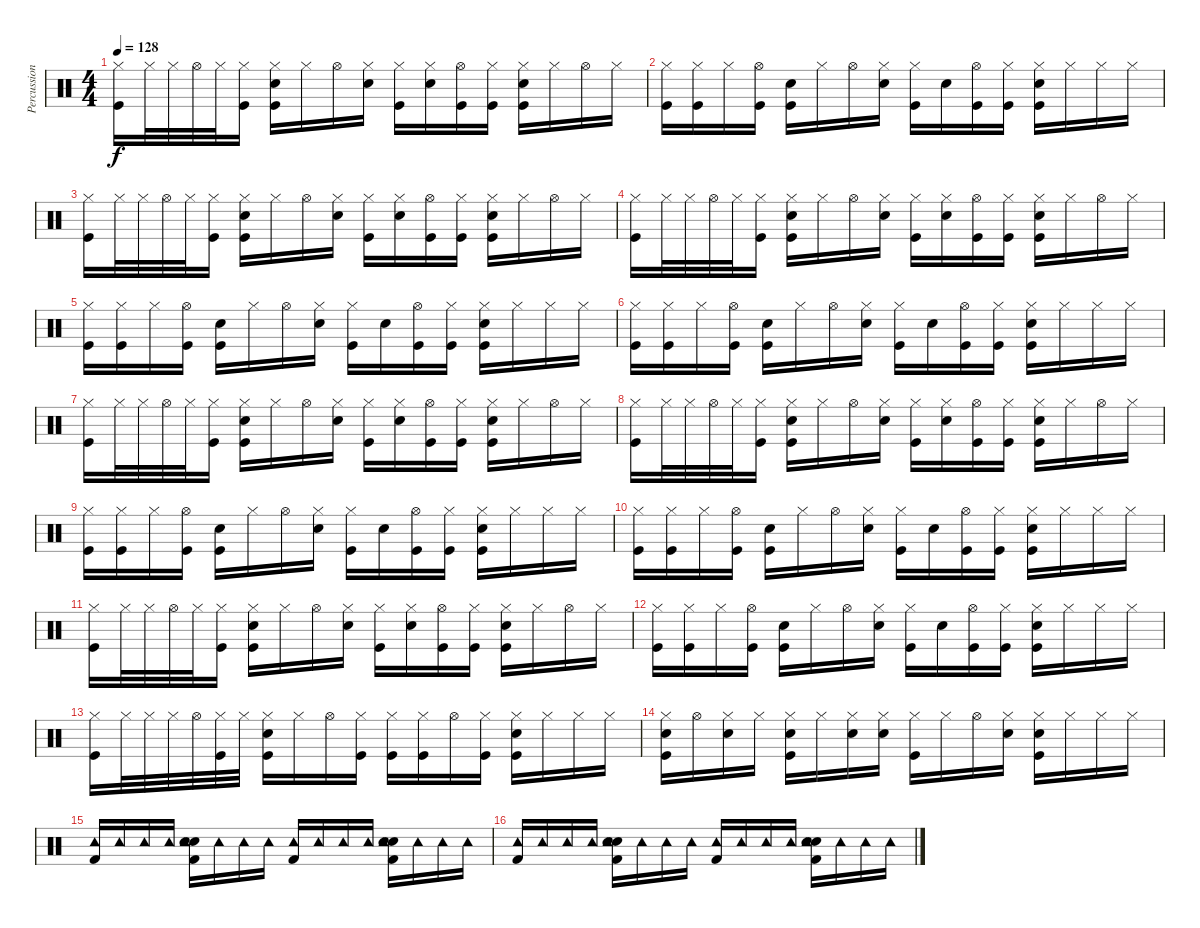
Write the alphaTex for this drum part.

\track ("Percussion" "Percussion") {instrument percussion}
\staff {score}
\articulation defaults
\ts (4 4)
\tempo 128
\clef neutral
\ks c
("Kick (hit)" "Hi-Hat (closed)").16{dy f} "Hi-Hat (closed)".32 "Hi-Hat (closed)".32 "Hi-Hat (open)".32 "Hi-Hat (closed)".32 ("Kick (hit)" "Hi-Hat (closed)").16 ("Kick (hit)" "Snare (hit) 2" "Hi-Hat (closed)").16 "Hi-Hat (closed)".16 "Hi-Hat (open)".16 ("Snare (hit) 2" "Hi-Hat (closed)").16 ("Kick (hit)" "Hi-Hat (closed)").16 ("Snare (hit) 2" "Hi-Hat (closed)").16 ("Kick (hit)" "Hi-Hat (open)").16 ("Kick (hit)" "Hi-Hat (closed)").16 ("Kick (hit)" "Snare (hit) 2" "Hi-Hat (closed)").16 "Hi-Hat (closed)".16 "Hi-Hat (open)".16 "Hi-Hat (closed)".16 |
("Kick (hit)" "Hi-Hat (closed)").16 ("Kick (hit)" "Hi-Hat (closed)").16 "Hi-Hat (closed)".16 ("Kick (hit)" "Hi-Hat (open)").16 ("Kick (hit)" "Snare (hit) 2").16 "Hi-Hat (closed)".16 "Hi-Hat (open)".16 ("Snare (hit) 2" "Hi-Hat (closed)").16 ("Kick (hit)" "Hi-Hat (closed)").16 "Snare (hit) 2".16 ("Kick (hit)" "Hi-Hat (open)").16 ("Kick (hit)" "Hi-Hat (closed)").16 ("Kick (hit)" "Snare (hit) 2" "Hi-Hat (closed)").16 "Hi-Hat (closed)".16 "Hi-Hat (closed)".16 "Hi-Hat (closed)".16 |
("Kick (hit)" "Hi-Hat (closed)").16 "Hi-Hat (closed)".32 "Hi-Hat (closed)".32 "Hi-Hat (open)".32 "Hi-Hat (closed)".32 ("Kick (hit)" "Hi-Hat (closed)").16 ("Kick (hit)" "Snare (hit) 2" "Hi-Hat (closed)").16 "Hi-Hat (closed)".16 "Hi-Hat (open)".16 ("Snare (hit) 2" "Hi-Hat (closed)").16 ("Kick (hit)" "Hi-Hat (closed)").16 ("Snare (hit) 2" "Hi-Hat (closed)").16 ("Kick (hit)" "Hi-Hat (open)").16 ("Kick (hit)" "Hi-Hat (closed)").16 ("Kick (hit)" "Snare (hit) 2" "Hi-Hat (closed)").16 "Hi-Hat (closed)".16 "Hi-Hat (open)".16 "Hi-Hat (closed)".16 |
("Kick (hit)" "Hi-Hat (closed)").16 "Hi-Hat (closed)".32 "Hi-Hat (closed)".32 "Hi-Hat (open)".32 "Hi-Hat (closed)".32 ("Kick (hit)" "Hi-Hat (closed)").16 ("Kick (hit)" "Snare (hit) 2" "Hi-Hat (closed)").16 "Hi-Hat (closed)".16 "Hi-Hat (open)".16 ("Snare (hit) 2" "Hi-Hat (closed)").16 ("Kick (hit)" "Hi-Hat (closed)").16 ("Snare (hit) 2" "Hi-Hat (closed)").16 ("Kick (hit)" "Hi-Hat (open)").16 ("Kick (hit)" "Hi-Hat (closed)").16 ("Kick (hit)" "Snare (hit) 2" "Hi-Hat (closed)").16 "Hi-Hat (closed)".16 "Hi-Hat (open)".16 "Hi-Hat (closed)".16 |
("Kick (hit)" "Hi-Hat (closed)").16 ("Kick (hit)" "Hi-Hat (closed)").16 "Hi-Hat (closed)".16 ("Kick (hit)" "Hi-Hat (open)").16 ("Kick (hit)" "Snare (hit) 2").16 "Hi-Hat (closed)".16 "Hi-Hat (open)".16 ("Snare (hit) 2" "Hi-Hat (closed)").16 ("Kick (hit)" "Hi-Hat (closed)").16 "Snare (hit) 2".16 ("Kick (hit)" "Hi-Hat (open)").16 ("Kick (hit)" "Hi-Hat (closed)").16 ("Kick (hit)" "Snare (hit) 2" "Hi-Hat (closed)").16 "Hi-Hat (closed)".16 "Hi-Hat (closed)".16 "Hi-Hat (closed)".16 |
("Kick (hit)" "Hi-Hat (closed)").16 ("Kick (hit)" "Hi-Hat (closed)").16 "Hi-Hat (closed)".16 ("Kick (hit)" "Hi-Hat (open)").16 ("Kick (hit)" "Snare (hit) 2").16 "Hi-Hat (closed)".16 "Hi-Hat (open)".16 ("Snare (hit) 2" "Hi-Hat (closed)").16 ("Kick (hit)" "Hi-Hat (closed)").16 "Snare (hit) 2".16 ("Kick (hit)" "Hi-Hat (open)").16 ("Kick (hit)" "Hi-Hat (closed)").16 ("Kick (hit)" "Snare (hit) 2" "Hi-Hat (closed)").16 "Hi-Hat (closed)".16 "Hi-Hat (closed)".16 "Hi-Hat (closed)".16 |
("Kick (hit)" "Hi-Hat (closed)").16 "Hi-Hat (closed)".32 "Hi-Hat (closed)".32 "Hi-Hat (open)".32 "Hi-Hat (closed)".32 ("Kick (hit)" "Hi-Hat (closed)").16 ("Kick (hit)" "Snare (hit) 2" "Hi-Hat (closed)").16 "Hi-Hat (closed)".16 "Hi-Hat (open)".16 ("Snare (hit) 2" "Hi-Hat (closed)").16 ("Kick (hit)" "Hi-Hat (closed)").16 ("Snare (hit) 2" "Hi-Hat (closed)").16 ("Kick (hit)" "Hi-Hat (open)").16 ("Kick (hit)" "Hi-Hat (closed)").16 ("Kick (hit)" "Snare (hit) 2" "Hi-Hat (closed)").16 "Hi-Hat (closed)".16 "Hi-Hat (open)".16 "Hi-Hat (closed)".16 |
("Kick (hit)" "Hi-Hat (closed)").16 "Hi-Hat (closed)".32 "Hi-Hat (closed)".32 "Hi-Hat (open)".32 "Hi-Hat (closed)".32 ("Kick (hit)" "Hi-Hat (closed)").16 ("Kick (hit)" "Snare (hit) 2" "Hi-Hat (closed)").16 "Hi-Hat (closed)".16 "Hi-Hat (open)".16 ("Snare (hit) 2" "Hi-Hat (closed)").16 ("Kick (hit)" "Hi-Hat (closed)").16 ("Snare (hit) 2" "Hi-Hat (closed)").16 ("Kick (hit)" "Hi-Hat (open)").16 ("Kick (hit)" "Hi-Hat (closed)").16 ("Kick (hit)" "Snare (hit) 2" "Hi-Hat (closed)").16 "Hi-Hat (closed)".16 "Hi-Hat (open)".16 "Hi-Hat (closed)".16 |
("Kick (hit)" "Hi-Hat (closed)").16 ("Kick (hit)" "Hi-Hat (closed)").16 "Hi-Hat (closed)".16 ("Kick (hit)" "Hi-Hat (open)").16 ("Kick (hit)" "Snare (hit) 2").16 "Hi-Hat (closed)".16 "Hi-Hat (open)".16 ("Snare (hit) 2" "Hi-Hat (closed)").16 ("Kick (hit)" "Hi-Hat (closed)").16 "Snare (hit) 2".16 ("Kick (hit)" "Hi-Hat (open)").16 ("Kick (hit)" "Hi-Hat (closed)").16 ("Kick (hit)" "Snare (hit) 2" "Hi-Hat (closed)").16 "Hi-Hat (closed)".16 "Hi-Hat (closed)".16 "Hi-Hat (closed)".16 |
("Kick (hit)" "Hi-Hat (closed)").16 ("Kick (hit)" "Hi-Hat (closed)").16 "Hi-Hat (closed)".16 ("Kick (hit)" "Hi-Hat (open)").16 ("Kick (hit)" "Snare (hit) 2").16 "Hi-Hat (closed)".16 "Hi-Hat (open)".16 ("Snare (hit) 2" "Hi-Hat (closed)").16 ("Kick (hit)" "Hi-Hat (closed)").16 "Snare (hit) 2".16 ("Kick (hit)" "Hi-Hat (open)").16 ("Kick (hit)" "Hi-Hat (closed)").16 ("Kick (hit)" "Snare (hit) 2" "Hi-Hat (closed)").16 "Hi-Hat (closed)".16 "Hi-Hat (closed)".16 "Hi-Hat (closed)".16 |
("Kick (hit)" "Hi-Hat (closed)").16 "Hi-Hat (closed)".32 "Hi-Hat (closed)".32 "Hi-Hat (open)".32 "Hi-Hat (closed)".32 ("Kick (hit)" "Hi-Hat (closed)").16 ("Kick (hit)" "Snare (hit) 2" "Hi-Hat (closed)").16 "Hi-Hat (closed)".16 "Hi-Hat (open)".16 ("Snare (hit) 2" "Hi-Hat (closed)").16 ("Kick (hit)" "Hi-Hat (closed)").16 ("Snare (hit) 2" "Hi-Hat (closed)").16 ("Kick (hit)" "Hi-Hat (open)").16 ("Kick (hit)" "Hi-Hat (closed)").16 ("Kick (hit)" "Snare (hit) 2" "Hi-Hat (closed)").16 "Hi-Hat (closed)".16 "Hi-Hat (open)".16 "Hi-Hat (closed)".16 |
("Kick (hit)" "Hi-Hat (closed)").16 ("Kick (hit)" "Hi-Hat (closed)").16 "Hi-Hat (closed)".16 ("Kick (hit)" "Hi-Hat (open)").16 ("Kick (hit)" "Snare (hit) 2").16 "Hi-Hat (closed)".16 "Hi-Hat (open)".16 ("Snare (hit) 2" "Hi-Hat (closed)").16 ("Kick (hit)" "Hi-Hat (closed)").16 "Snare (hit) 2".16 ("Kick (hit)" "Hi-Hat (open)").16 ("Kick (hit)" "Hi-Hat (closed)").16 ("Kick (hit)" "Snare (hit) 2" "Hi-Hat (closed)").16 "Hi-Hat (closed)".16 "Hi-Hat (closed)".16 "Hi-Hat (closed)".16 |
("Kick (hit)" "Hi-Hat (closed)").16 "Hi-Hat (closed)".32 "Hi-Hat (closed)".32 "Hi-Hat (closed)".32 "Hi-Hat (open)".32 ("Kick (hit)" "Hi-Hat (closed)").32 "Hi-Hat (closed)".32 ("Kick (hit)" "Snare (hit) 2" "Hi-Hat (closed)").16 "Hi-Hat (closed)".16 "Hi-Hat (open)".16 ("Kick (hit)" "Hi-Hat (closed)").16 ("Kick (hit)" "Hi-Hat (closed)").16 ("Kick (hit)" "Hi-Hat (closed)").16 "Hi-Hat (open)".16 ("Kick (hit)" "Hi-Hat (closed)").16 ("Kick (hit)" "Snare (hit) 2" "Hi-Hat (closed)").16 "Hi-Hat (closed)".16 "Hi-Hat (closed)".16 "Hi-Hat (closed)".16 |
("Kick (hit)" "Snare (hit) 2" "Hi-Hat (closed)").16 "Hi-Hat (open)".16 ("Snare (hit) 2" "Hi-Hat (closed)").16 "Hi-Hat (closed)".16 ("Kick (hit)" "Snare (hit) 2" "Hi-Hat (closed)").16 "Hi-Hat (closed)".16 ("Snare (hit) 2" "Hi-Hat (closed)").16 ("Snare (hit) 2" "Hi-Hat (closed)").16 ("Kick (hit)" "Hi-Hat (closed)").16 "Hi-Hat (closed)".16 "Hi-Hat (open)".16 ("Snare (hit) 2" "Hi-Hat (closed)").16 ("Kick (hit)" "Snare (hit) 2" "Hi-Hat (closed)").16 "Hi-Hat (closed)".16 "Hi-Hat (closed)".16 "Hi-Hat (closed)".16 |
("Kick (hit) 2" "Tambourine (hit)").16 "Tambourine (hit)".16 "Tambourine (hit)".16 "Tambourine (hit)".16 ("Kick (hit) 2" "Snare (hit) 2" "Hand Clap (hit)" "Tambourine (hit)").16 "Tambourine (hit)".16 "Tambourine (hit)".16 "Tambourine (hit)".16 ("Kick (hit) 2" "Tambourine (hit)").16 "Tambourine (hit)".16 "Tambourine (hit)".16 "Tambourine (hit)".16 ("Kick (hit) 2" "Snare (hit) 2" "Hand Clap (hit)" "Tambourine (hit)").16 "Tambourine (hit)".16 "Tambourine (hit)".16 "Tambourine (hit)".16 |
("Kick (hit) 2" "Tambourine (hit)").16 "Tambourine (hit)".16 "Tambourine (hit)".16 "Tambourine (hit)".16 ("Kick (hit) 2" "Snare (hit) 2" "Hand Clap (hit)" "Tambourine (hit)").16 "Tambourine (hit)".16 "Tambourine (hit)".16 "Tambourine (hit)".16 ("Kick (hit) 2" "Tambourine (hit)").16 "Tambourine (hit)".16 "Tambourine (hit)".16 "Tambourine (hit)".16 ("Kick (hit) 2" "Snare (hit) 2" "Hand Clap (hit)" "Tambourine (hit)").16 "Tambourine (hit)".16 "Tambourine (hit)".16 "Tambourine (hit)".16
